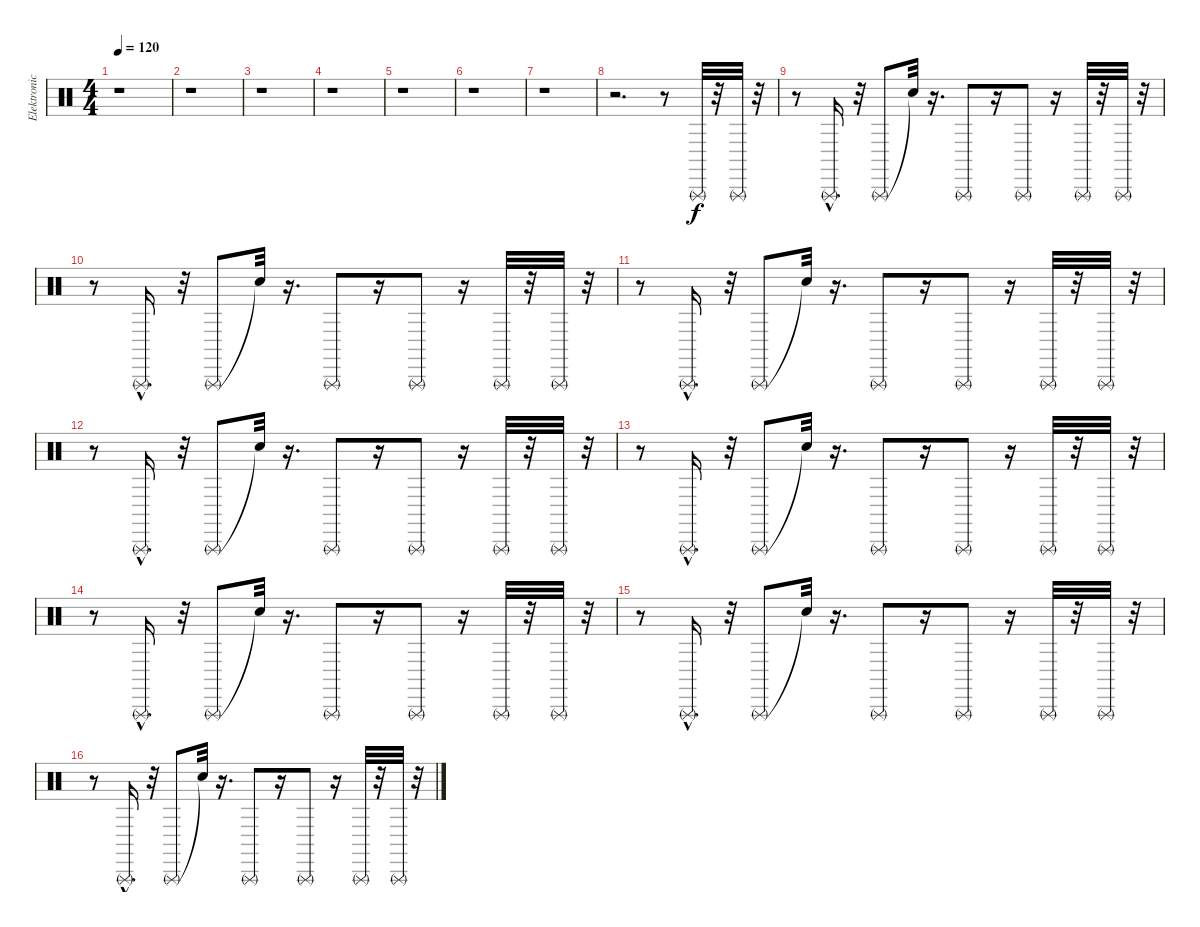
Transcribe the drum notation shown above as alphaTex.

\track ("Elektronické bicí 1" "Elektronic") {instrument percussion}
\staff {score}
\articulation defaults
\ts (4 4)
\tempo 120
\clef neutral
\ks c
r.1{dy f} |
r.1 |
r.1 |
r.1 |
r.1 |
r.1 |
r.1 |
r.2{d} r.8 "Triangle (rnute)".32 r.32 "Triangle (rnute)".32 r.32 |
r.8 "Triangle (rnute)"{hac}.16{d} r.32 "Triangle (rnute)".8 "Snare (hit)"{t}.32 r.16{d} "Triangle (rnute)".8 r.16 "Triangle (rnute)".8 r.16 "Triangle (rnute)".32 r.32 "Triangle (rnute)".32 r.32 |
r.8 "Triangle (rnute)"{hac}.16{d} r.32 "Triangle (rnute)".8 "Snare (hit)"{t}.32 r.16{d} "Triangle (rnute)".8 r.16 "Triangle (rnute)".8 r.16 "Triangle (rnute)".32 r.32 "Triangle (rnute)".32 r.32 |
r.8 "Triangle (rnute)"{hac}.16{d} r.32 "Triangle (rnute)".8 "Snare (hit)"{t}.32 r.16{d} "Triangle (rnute)".8 r.16 "Triangle (rnute)".8 r.16 "Triangle (rnute)".32 r.32 "Triangle (rnute)".32 r.32 |
r.8 "Triangle (rnute)"{hac}.16{d} r.32 "Triangle (rnute)".8 "Snare (hit)"{t}.32 r.16{d} "Triangle (rnute)".8 r.16 "Triangle (rnute)".8 r.16 "Triangle (rnute)".32 r.32 "Triangle (rnute)".32 r.32 |
r.8 "Triangle (rnute)"{hac}.16{d} r.32 "Triangle (rnute)".8 "Snare (hit)"{t}.32 r.16{d} "Triangle (rnute)".8 r.16 "Triangle (rnute)".8 r.16 "Triangle (rnute)".32 r.32 "Triangle (rnute)".32 r.32 |
r.8 "Triangle (rnute)"{hac}.16{d} r.32 "Triangle (rnute)".8 "Snare (hit)"{t}.32 r.16{d} "Triangle (rnute)".8 r.16 "Triangle (rnute)".8 r.16 "Triangle (rnute)".32 r.32 "Triangle (rnute)".32 r.32 |
r.8 "Triangle (rnute)"{hac}.16{d} r.32 "Triangle (rnute)".8 "Snare (hit)"{t}.32 r.16{d} "Triangle (rnute)".8 r.16 "Triangle (rnute)".8 r.16 "Triangle (rnute)".32 r.32 "Triangle (rnute)".32 r.32 |
r.8 "Triangle (rnute)"{hac}.16{d} r.32 "Triangle (rnute)".8 "Snare (hit)"{t}.32 r.16{d} "Triangle (rnute)".8 r.16 "Triangle (rnute)".8 r.16 "Triangle (rnute)".32 r.32 "Triangle (rnute)".32 r.32
